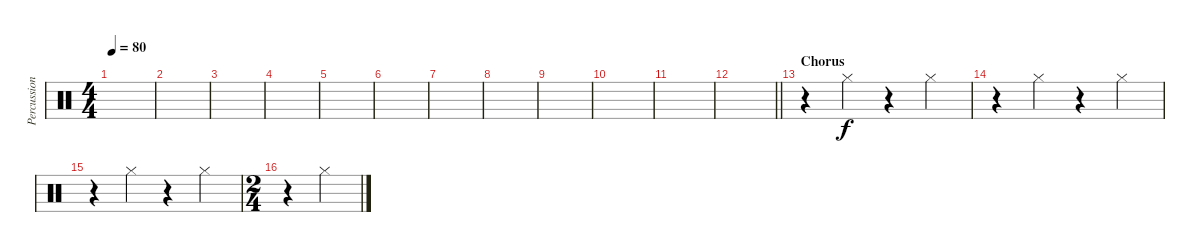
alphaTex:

\track ("Percussion" "Percussion") {instrument percussion}
\staff {score}
\articulation defaults
\ts (4 4)
\tempo 80
\clef neutral
\ks c
|
|
|
|
|
|
|
|
|
|
|
\barLineRight lightlight
|
\section ("" "Chorus")
r.4 "Hi-Hat (closed)".4 r.4 "Hi-Hat (closed)".4 |
r.4 "Hi-Hat (closed)".4 r.4 "Hi-Hat (closed)".4 |
r.4 "Hi-Hat (closed)".4 r.4 "Hi-Hat (closed)".4 |
\ts (2 4)
r.4 "Hi-Hat (closed)".4
